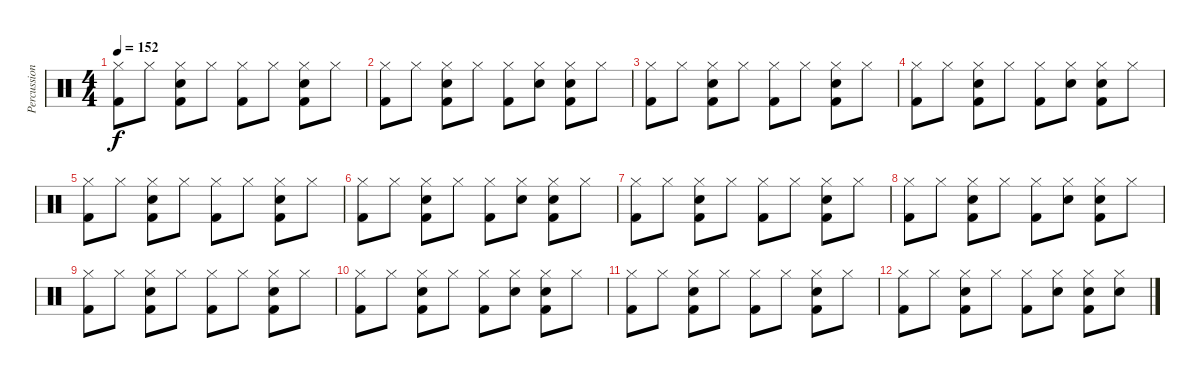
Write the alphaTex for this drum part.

\track ("Percussion" "Percussion") {instrument percussion}
\staff {score}
\articulation defaults
\ts (4 4)
\tempo 152
\clef neutral
\ks c
("Hi-Hat (closed)" "Kick (hit) 2").8{dy f} "Hi-Hat (closed)".8 ("Hi-Hat (closed)" "Electric Snare (hit)" "Kick (hit) 2").8 "Hi-Hat (closed)".8 ("Hi-Hat (closed)" "Kick (hit) 2").8 "Hi-Hat (closed)".8 ("Hi-Hat (closed)" "Electric Snare (hit)" "Kick (hit) 2").8 "Hi-Hat (closed)".8 |
("Hi-Hat (closed)" "Kick (hit) 2").8 "Hi-Hat (closed)".8 ("Hi-Hat (closed)" "Electric Snare (hit)" "Kick (hit) 2").8 "Hi-Hat (closed)".8 ("Hi-Hat (closed)" "Kick (hit) 2").8 ("Hi-Hat (closed)" "Electric Snare (hit)").8 ("Hi-Hat (closed)" "Electric Snare (hit)" "Kick (hit) 2").8 "Hi-Hat (closed)".8 |
("Hi-Hat (closed)" "Kick (hit) 2").8 "Hi-Hat (closed)".8 ("Hi-Hat (closed)" "Electric Snare (hit)" "Kick (hit) 2").8 "Hi-Hat (closed)".8 ("Hi-Hat (closed)" "Kick (hit) 2").8 "Hi-Hat (closed)".8 ("Hi-Hat (closed)" "Electric Snare (hit)" "Kick (hit) 2").8 "Hi-Hat (closed)".8 |
("Hi-Hat (closed)" "Kick (hit) 2").8 "Hi-Hat (closed)".8 ("Hi-Hat (closed)" "Electric Snare (hit)" "Kick (hit) 2").8 "Hi-Hat (closed)".8 ("Hi-Hat (closed)" "Kick (hit) 2").8 ("Hi-Hat (closed)" "Electric Snare (hit)").8 ("Hi-Hat (closed)" "Electric Snare (hit)" "Kick (hit) 2").8 "Hi-Hat (closed)".8 |
("Hi-Hat (closed)" "Kick (hit) 2").8 "Hi-Hat (closed)".8 ("Hi-Hat (closed)" "Electric Snare (hit)" "Kick (hit) 2").8 "Hi-Hat (closed)".8 ("Hi-Hat (closed)" "Kick (hit) 2").8 "Hi-Hat (closed)".8 ("Hi-Hat (closed)" "Electric Snare (hit)" "Kick (hit) 2").8 "Hi-Hat (closed)".8 |
("Hi-Hat (closed)" "Kick (hit) 2").8 "Hi-Hat (closed)".8 ("Hi-Hat (closed)" "Electric Snare (hit)" "Kick (hit) 2").8 "Hi-Hat (closed)".8 ("Hi-Hat (closed)" "Kick (hit) 2").8 ("Hi-Hat (closed)" "Electric Snare (hit)").8 ("Hi-Hat (closed)" "Electric Snare (hit)" "Kick (hit) 2").8 "Hi-Hat (closed)".8 |
("Hi-Hat (closed)" "Kick (hit) 2").8 "Hi-Hat (closed)".8 ("Hi-Hat (closed)" "Electric Snare (hit)" "Kick (hit) 2").8 "Hi-Hat (closed)".8 ("Hi-Hat (closed)" "Kick (hit) 2").8 "Hi-Hat (closed)".8 ("Hi-Hat (closed)" "Electric Snare (hit)" "Kick (hit) 2").8 "Hi-Hat (closed)".8 |
("Hi-Hat (closed)" "Kick (hit) 2").8 "Hi-Hat (closed)".8 ("Hi-Hat (closed)" "Electric Snare (hit)" "Kick (hit) 2").8 "Hi-Hat (closed)".8 ("Hi-Hat (closed)" "Kick (hit) 2").8 ("Hi-Hat (closed)" "Electric Snare (hit)").8 ("Hi-Hat (closed)" "Electric Snare (hit)" "Kick (hit) 2").8 "Hi-Hat (closed)".8 |
("Hi-Hat (closed)" "Kick (hit) 2").8 "Hi-Hat (closed)".8 ("Hi-Hat (closed)" "Electric Snare (hit)" "Kick (hit) 2").8 "Hi-Hat (closed)".8 ("Hi-Hat (closed)" "Kick (hit) 2").8 "Hi-Hat (closed)".8 ("Hi-Hat (closed)" "Electric Snare (hit)" "Kick (hit) 2").8 "Hi-Hat (closed)".8 |
("Hi-Hat (closed)" "Kick (hit) 2").8 "Hi-Hat (closed)".8 ("Hi-Hat (closed)" "Electric Snare (hit)" "Kick (hit) 2").8 "Hi-Hat (closed)".8 ("Hi-Hat (closed)" "Kick (hit) 2").8 ("Hi-Hat (closed)" "Electric Snare (hit)").8 ("Hi-Hat (closed)" "Electric Snare (hit)" "Kick (hit) 2").8 "Hi-Hat (closed)".8 |
("Hi-Hat (closed)" "Kick (hit) 2").8 "Hi-Hat (closed)".8 ("Hi-Hat (closed)" "Electric Snare (hit)" "Kick (hit) 2").8 "Hi-Hat (closed)".8 ("Hi-Hat (closed)" "Kick (hit) 2").8 "Hi-Hat (closed)".8 ("Hi-Hat (closed)" "Electric Snare (hit)" "Kick (hit) 2").8 "Hi-Hat (closed)".8 |
("Hi-Hat (closed)" "Kick (hit) 2").8 "Hi-Hat (closed)".8 ("Hi-Hat (closed)" "Electric Snare (hit)" "Kick (hit) 2").8 "Hi-Hat (closed)".8 ("Hi-Hat (closed)" "Kick (hit) 2").8 ("Hi-Hat (closed)" "Electric Snare (hit)").8 ("Hi-Hat (closed)" "Electric Snare (hit)" "Kick (hit) 2").8 ("Hi-Hat (closed)" "Electric Snare (hit)").8
